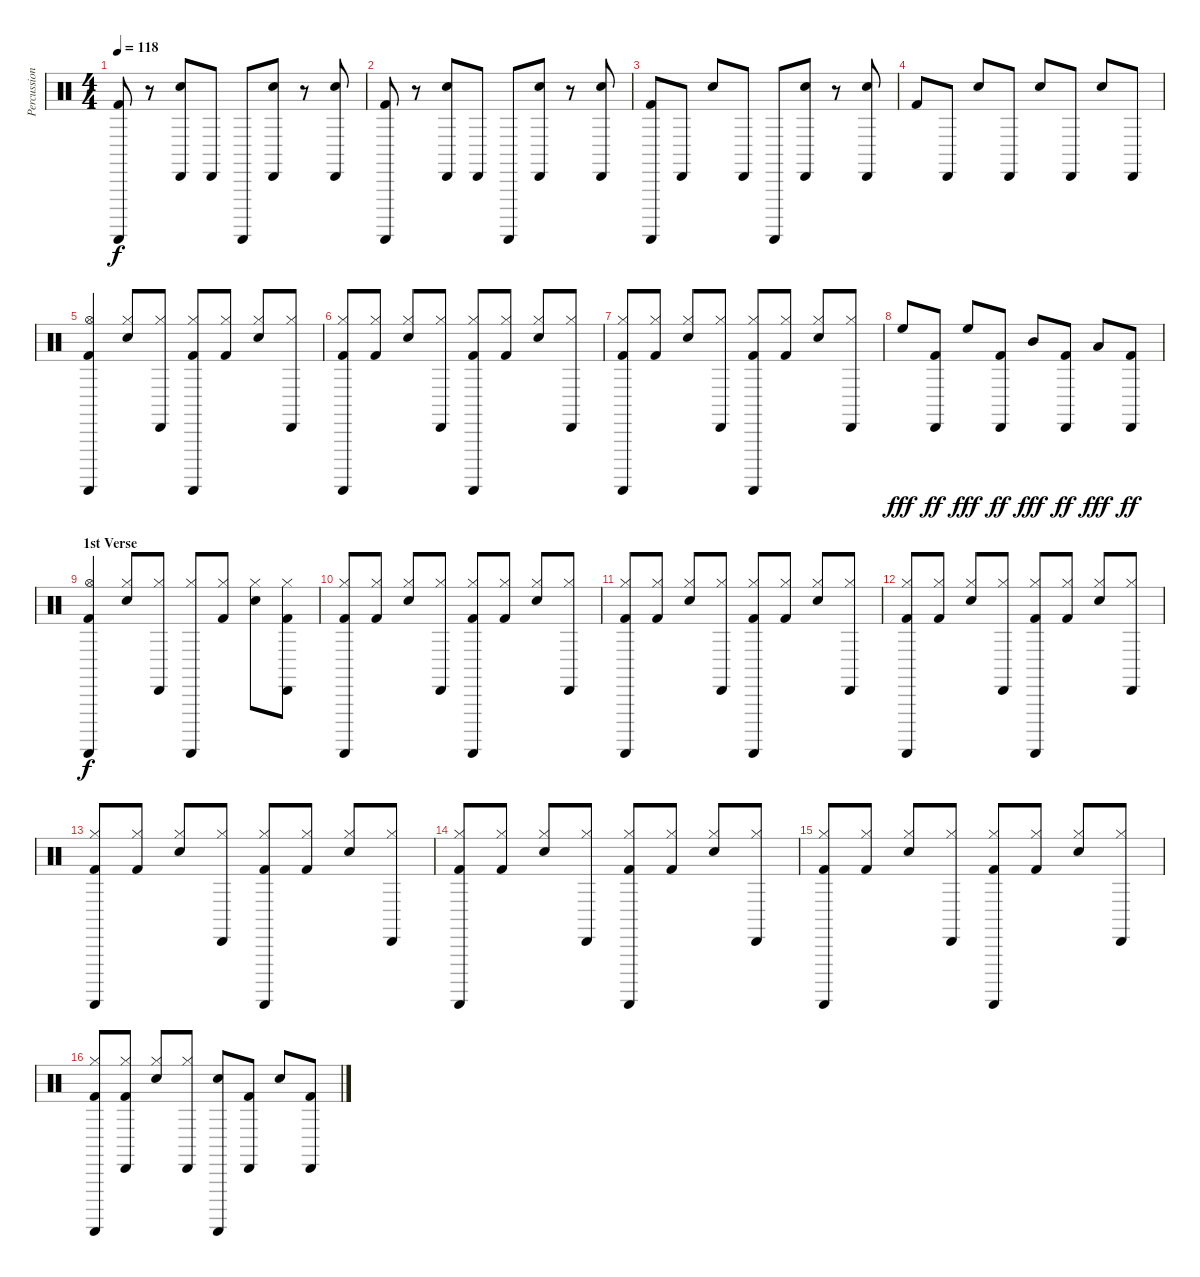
\track ("Percussions" "Percussion") {instrument percussion}
\staff {score}
\articulation defaults
\ts (4 4)
\tempo 118
\clef neutral
\ks c
("Guiro (scrap-return)" "Kick (hit) 2").8{dy f} r.8 ("Cabasa (hit)" "Snare (hit) 2").8 "Cabasa (hit)".8 "Guiro (scrap-return)".8 ("Cabasa (hit)" "Snare (hit) 2").8 r.8 ("Cabasa (hit)" "Snare (hit) 2").8 |
("Guiro (scrap-return)" "Kick (hit) 2").8 r.8 ("Cabasa (hit)" "Snare (hit) 2").8 "Cabasa (hit)".8 "Guiro (scrap-return)".8 ("Cabasa (hit)" "Snare (hit) 2").8 r.8 ("Cabasa (hit)" "Snare (hit) 2").8 |
("Guiro (scrap-return)" "Kick (hit) 2").8 "Cabasa (hit)".8 "Snare (hit) 2".8 "Cabasa (hit)".8 "Guiro (scrap-return)".8 ("Cabasa (hit)" "Snare (hit) 2").8 r.8 ("Cabasa (hit)" "Snare (hit) 2").8 |
"Kick (hit) 2".8 "Cabasa (hit)".8 "Snare (hit) 2".8 "Cabasa (hit)".8 "Snare (hit) 2".8 "Cabasa (hit)".8 "Snare (hit) 2".8 "Cabasa (hit)".8 |
("Guiro (scrap-return)" "Hi-Hat (open)" "Kick (hit) 2").4 ("Hi-Hat (closed)" "Snare (hit) 2").8 ("Cabasa (hit)" "Hi-Hat (closed)").8 ("Guiro (scrap-return)" "Hi-Hat (closed)" "Kick (hit) 2").8 ("Hi-Hat (closed)" "Kick (hit) 2").8 ("Hi-Hat (closed)" "Snare (hit) 2").8 ("Cabasa (hit)" "Hi-Hat (closed)").8 |
("Guiro (scrap-return)" "Hi-Hat (closed)" "Kick (hit) 2").8 ("Hi-Hat (closed)" "Kick (hit) 2").8 ("Hi-Hat (closed)" "Snare (hit) 2").8 ("Cabasa (hit)" "Hi-Hat (closed)").8 ("Guiro (scrap-return)" "Hi-Hat (closed)" "Kick (hit) 2").8 ("Hi-Hat (closed)" "Kick (hit) 2").8 ("Hi-Hat (closed)" "Snare (hit) 2").8 ("Cabasa (hit)" "Hi-Hat (closed)").8 |
("Guiro (scrap-return)" "Hi-Hat (closed)" "Kick (hit) 2").8 ("Hi-Hat (closed)" "Kick (hit) 2").8 ("Hi-Hat (closed)" "Snare (hit) 2").8 ("Cabasa (hit)" "Hi-Hat (closed)").8 ("Guiro (scrap-return)" "Hi-Hat (closed)" "Kick (hit) 2").8 ("Hi-Hat (closed)" "Kick (hit) 2").8 ("Hi-Hat (closed)" "Snare (hit) 2").8 ("Cabasa (hit)" "Hi-Hat (closed)").8 |
"High Floor Tom (hit)".8{dy fff} ("Cabasa (hit)" "Kick (hit) 2").8{dy ff} "High Floor Tom (hit)".8{dy fff} ("Cabasa (hit)" "Kick (hit) 2").8{dy ff} "Mid Tom (hit)".8{dy fff} ("Cabasa (hit)" "Kick (hit) 2").8{dy ff} "Low Tom (hit)".8{dy fff} ("Cabasa (hit)" "Kick (hit) 2").8{dy ff} |
\section ("" "1st Verse")
("Guiro (scrap-return)" "Hi-Hat (open)" "Kick (hit) 2").4{dy f} ("Hi-Hat (closed)" "Snare (hit) 2").8 ("Cabasa (hit)" "Hi-Hat (closed)").8 ("Guiro (scrap-return)" "Hi-Hat (closed)").8 ("Hi-Hat (closed)" "Kick (hit) 2").8 ("Hi-Hat (closed)" "Snare (hit) 2").8 ("Cabasa (hit)" "Hi-Hat (closed)" "Kick (hit) 2").8 |
("Guiro (scrap-return)" "Hi-Hat (closed)" "Kick (hit) 2").8 ("Hi-Hat (closed)" "Kick (hit) 2").8 ("Hi-Hat (closed)" "Snare (hit) 2").8 ("Cabasa (hit)" "Hi-Hat (closed)").8 ("Guiro (scrap-return)" "Hi-Hat (closed)" "Kick (hit) 2").8 ("Hi-Hat (closed)" "Kick (hit) 2").8 ("Hi-Hat (closed)" "Snare (hit) 2").8 ("Cabasa (hit)" "Hi-Hat (closed)").8 |
("Guiro (scrap-return)" "Hi-Hat (closed)" "Kick (hit) 2").8 ("Hi-Hat (closed)" "Kick (hit) 2").8 ("Hi-Hat (closed)" "Snare (hit) 2").8 ("Cabasa (hit)" "Hi-Hat (closed)").8 ("Guiro (scrap-return)" "Hi-Hat (closed)" "Kick (hit) 2").8 ("Hi-Hat (closed)" "Kick (hit) 2").8 ("Hi-Hat (closed)" "Snare (hit) 2").8 ("Cabasa (hit)" "Hi-Hat (closed)").8 |
("Guiro (scrap-return)" "Hi-Hat (closed)" "Kick (hit) 2").8 ("Hi-Hat (closed)" "Kick (hit) 2").8 ("Hi-Hat (closed)" "Snare (hit) 2").8 ("Cabasa (hit)" "Hi-Hat (closed)").8 ("Guiro (scrap-return)" "Hi-Hat (closed)" "Kick (hit) 2").8 ("Hi-Hat (closed)" "Kick (hit) 2").8 ("Hi-Hat (closed)" "Snare (hit) 2").8 ("Cabasa (hit)" "Hi-Hat (closed)").8 |
("Guiro (scrap-return)" "Hi-Hat (closed)" "Kick (hit) 2").8 ("Hi-Hat (closed)" "Kick (hit) 2").8 ("Hi-Hat (closed)" "Snare (hit) 2").8 ("Cabasa (hit)" "Hi-Hat (closed)").8 ("Guiro (scrap-return)" "Hi-Hat (closed)" "Kick (hit) 2").8 ("Hi-Hat (closed)" "Kick (hit) 2").8 ("Hi-Hat (closed)" "Snare (hit) 2").8 ("Cabasa (hit)" "Hi-Hat (closed)").8 |
("Guiro (scrap-return)" "Hi-Hat (closed)" "Kick (hit) 2").8 ("Hi-Hat (closed)" "Kick (hit) 2").8 ("Hi-Hat (closed)" "Snare (hit) 2").8 ("Cabasa (hit)" "Hi-Hat (closed)").8 ("Guiro (scrap-return)" "Hi-Hat (closed)" "Kick (hit) 2").8 ("Hi-Hat (closed)" "Kick (hit) 2").8 ("Hi-Hat (closed)" "Snare (hit) 2").8 ("Cabasa (hit)" "Hi-Hat (closed)").8 |
("Guiro (scrap-return)" "Hi-Hat (closed)" "Kick (hit) 2").8 ("Hi-Hat (closed)" "Kick (hit) 2").8 ("Hi-Hat (closed)" "Snare (hit) 2").8 ("Cabasa (hit)" "Hi-Hat (closed)").8 ("Guiro (scrap-return)" "Hi-Hat (closed)" "Kick (hit) 2").8 ("Hi-Hat (closed)" "Kick (hit) 2").8 ("Hi-Hat (closed)" "Snare (hit) 2").8 ("Cabasa (hit)" "Hi-Hat (closed)").8 |
("Guiro (scrap-return)" "Hi-Hat (closed)" "Kick (hit) 2").8 ("Cabasa (hit)" "Hi-Hat (closed)" "Kick (hit) 2").8 ("Hi-Hat (closed)" "Snare (hit) 2").8 ("Cabasa (hit)" "Hi-Hat (closed)").8 ("Guiro (scrap-return)" "Snare (hit) 2").8 ("Cabasa (hit)" "Kick (hit) 2").8 "Snare (hit) 2".8 ("Cabasa (hit)" "Kick (hit) 2").8
